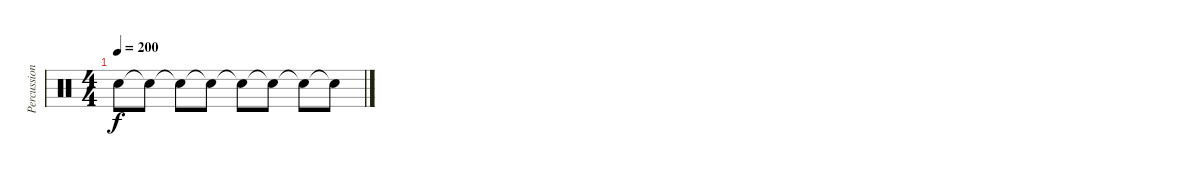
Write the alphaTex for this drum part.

\track ("Percussion" "Percussion") {instrument percussion}
\staff {score}
\articulation defaults
\ts (4 4)
\tempo 200
\clef neutral
\ks c "Snare (hit)"{t}.8{dy f} "Snare (hit)"{t}.8 "Snare (hit)"{t}.8 "Snare (hit)"{t}.8 "Snare (hit)"{t}.8 "Snare (hit)"{t}.8 "Snare (hit)"{t}.8 "Snare (hit)"{t}.8
